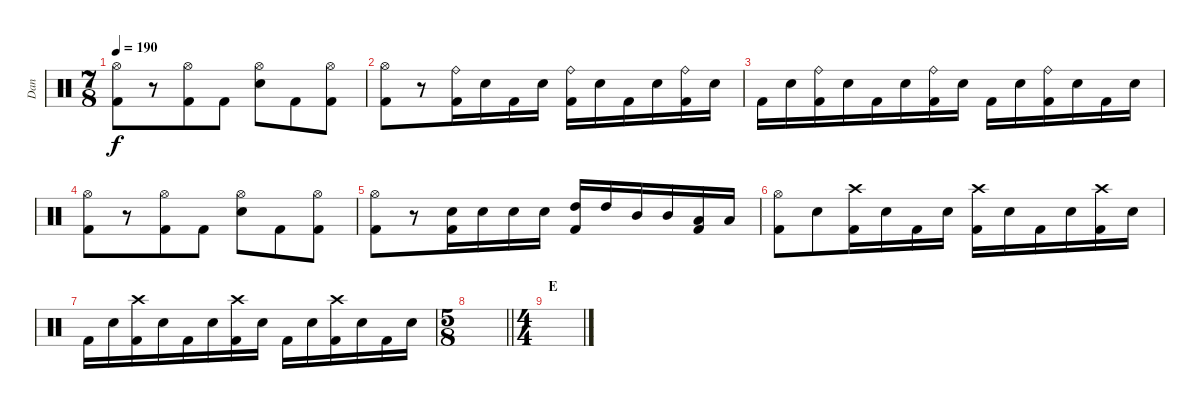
\track ("Dan" "Dan") {instrument percussion}
\staff {score}
\articulation defaults
\ts (7 8)
\tempo 190
\clef neutral
\ks c
("Hi-Hat (open)" "Kick (hit) 2").8{dy f} r.8 ("Hi-Hat (open)" "Kick (hit) 2").8 "Kick (hit) 2".8 ("Hi-Hat (open)" "Electric Snare (hit)").8 "Kick (hit) 2".8 ("Hi-Hat (open)" "Kick (hit) 2").8 |
("Hi-Hat (open)" "Kick (hit) 2").8 r.8 ("Ride (bell)" "Kick (hit) 2").16 "Electric Snare (hit)".16 "Kick (hit) 2".16 "Electric Snare (hit)".16 ("Ride (bell)" "Kick (hit) 2").16 "Electric Snare (hit)".16 "Kick (hit) 2".16 "Electric Snare (hit)".16 ("Ride (bell)" "Kick (hit) 2").16 "Electric Snare (hit)".16 |
"Kick (hit) 2".16 "Electric Snare (hit)".16 ("Ride (bell)" "Kick (hit) 2").16 "Electric Snare (hit)".16 "Kick (hit) 2".16 "Electric Snare (hit)".16 ("Ride (bell)" "Kick (hit) 2").16 "Electric Snare (hit)".16 "Kick (hit) 2".16 "Electric Snare (hit)".16 ("Ride (bell)" "Kick (hit) 2").16 "Electric Snare (hit)".16 "Kick (hit) 2".16 "Electric Snare (hit)".16 |
("Hi-Hat (open)" "Kick (hit) 2").8 r.8 ("Hi-Hat (open)" "Kick (hit) 2").8 "Kick (hit) 2".8 ("Hi-Hat (open)" "Electric Snare (hit)").8 "Kick (hit) 2".8 ("Hi-Hat (open)" "Kick (hit) 2").8 |
("Hi-Hat (open)" "Kick (hit) 2").8 r.8 ("Electric Snare (hit)" "Kick (hit) 2").16 "Electric Snare (hit)".16 "Electric Snare (hit)".16 "Electric Snare (hit)".16 ("High Tom (hit)" "Kick (hit) 2").16 "High Tom (hit)".16 "Mid Tom (hit)".16 "Mid Tom (hit)".16 ("Low Tom (hit)" "Kick (hit) 2").16 "Low Tom (hit)".16 |
("Hi-Hat (open)" "Kick (hit) 2").8 "Electric Snare (hit)".8 ("Crash high (hit)" "Kick (hit) 2").16 "Electric Snare (hit)".16 "Kick (hit) 2".16 "Electric Snare (hit)".16 ("Crash high (hit)" "Kick (hit) 2").16 "Electric Snare (hit)".16 "Kick (hit) 2".16 "Electric Snare (hit)".16 ("Crash high (hit)" "Kick (hit) 2").16 "Electric Snare (hit)".16 |
"Kick (hit) 2".16 "Electric Snare (hit)".16 ("Crash high (hit)" "Kick (hit) 2").16 "Electric Snare (hit)".16 "Kick (hit) 2".16 "Electric Snare (hit)".16 ("Crash high (hit)" "Kick (hit) 2").16 "Electric Snare (hit)".16 "Kick (hit) 2".16 "Electric Snare (hit)".16 ("Crash high (hit)" "Kick (hit) 2").16 "Electric Snare (hit)".16 "Kick (hit) 2".16 "Electric Snare (hit)".16 |
\ts (5 8)
\barLineRight lightlight
|
\ts (4 4)
\section ("" "E")
